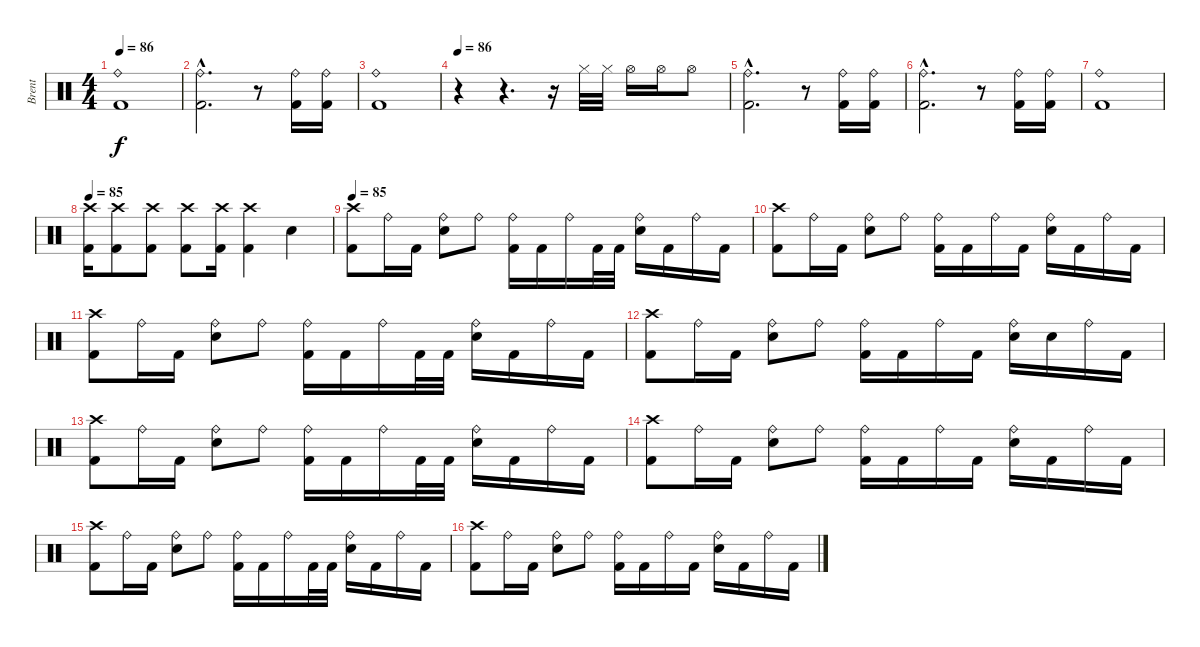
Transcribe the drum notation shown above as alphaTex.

\track ("Brent" "Brent") {instrument percussion}
\staff {score}
\articulation defaults
\ts (4 4)
\tempo 86
\clef neutral
\ks c
("Ride (bell)" "Kick (hit) 2").1{dy f} |
("Ride (bell)"{hac} "Kick (hit) 2"{hac}).2{d} r.8 ("Ride (bell)" "Kick (hit) 2").16 ("Ride (bell)" "Kick (hit) 2").16 |
("Ride (bell)" "Kick (hit) 2").1 |
\tempo 86
r.4 r.4{d} r.16 "Hi-Hat (closed)".32 "Hi-Hat (closed)".32 "Hi-Hat (open)".16 "Hi-Hat (open)".16 "Hi-Hat (open)".8 |
("Ride (bell)"{hac} "Kick (hit) 2"{hac}).2{d} r.8 ("Ride (bell)" "Kick (hit) 2").16 ("Ride (bell)" "Kick (hit) 2").16 |
("Ride (bell)"{hac} "Kick (hit) 2"{hac}).2{d} r.8 ("Ride (bell)" "Kick (hit) 2").16 ("Ride (bell)" "Kick (hit) 2").16 |
("Ride (bell)" "Kick (hit) 2").1 |
\tempo 85
("Crash high (hit)" "Kick (hit) 2").16 ("Crash high (hit)" "Kick (hit) 2").8 ("Crash high (hit)" "Kick (hit) 2").8 ("Crash high (hit)" "Kick (hit) 2").8 ("Crash high (hit)" "Kick (hit) 2").16 ("Crash high (hit)" "Kick (hit) 2").4 "Snare (hit) 2".4 |
\tempo 85
("Crash high (hit)" "Kick (hit) 2").8 "Ride (bell)".16 "Kick (hit) 2".16 ("Ride (bell)" "Snare (hit) 2").8 "Ride (bell)".8 ("Ride (bell)" "Kick (hit) 2").16 "Kick (hit) 2".16 "Ride (bell)".16 "Kick (hit) 2".32 "Kick (hit) 2".32 ("Ride (bell)" "Snare (hit) 2").16 "Kick (hit) 2".16 "Ride (bell)".16 "Kick (hit) 2".16 |
("Crash high (hit)" "Kick (hit) 2").8 "Ride (bell)".16 "Kick (hit) 2".16 ("Ride (bell)" "Snare (hit) 2").8 "Ride (bell)".8 ("Ride (bell)" "Kick (hit) 2").16 "Kick (hit) 2".16 "Ride (bell)".16 "Kick (hit) 2".16 ("Ride (bell)" "Snare (hit) 2").16 "Kick (hit) 2".16 "Ride (bell)".16 "Kick (hit) 2".16 |
("Crash high (hit)" "Kick (hit) 2").8 "Ride (bell)".16 "Kick (hit) 2".16 ("Ride (bell)" "Snare (hit) 2").8 "Ride (bell)".8 ("Ride (bell)" "Kick (hit) 2").16 "Kick (hit) 2".16 "Ride (bell)".16 "Kick (hit) 2".32 "Kick (hit) 2".32 ("Ride (bell)" "Snare (hit) 2").16 "Kick (hit) 2".16 "Ride (bell)".16 "Kick (hit) 2".16 |
("Crash high (hit)" "Kick (hit) 2").8 "Ride (bell)".16 "Kick (hit) 2".16 ("Ride (bell)" "Snare (hit) 2").8 "Ride (bell)".8 ("Ride (bell)" "Kick (hit) 2").16 "Kick (hit) 2".16 "Ride (bell)".16 "Kick (hit) 2".16 ("Ride (bell)" "Snare (hit) 2").16 "Snare (hit) 2".16 "Ride (bell)".16 "Kick (hit) 2".16 |
("Crash high (hit)" "Kick (hit) 2").8 "Ride (bell)".16 "Kick (hit) 2".16 ("Ride (bell)" "Snare (hit) 2").8 "Ride (bell)".8 ("Ride (bell)" "Kick (hit) 2").16 "Kick (hit) 2".16 "Ride (bell)".16 "Kick (hit) 2".32 "Kick (hit) 2".32 ("Ride (bell)" "Snare (hit) 2").16 "Kick (hit) 2".16 "Ride (bell)".16 "Kick (hit) 2".16 |
("Crash high (hit)" "Kick (hit) 2").8 "Ride (bell)".16 "Kick (hit) 2".16 ("Ride (bell)" "Snare (hit) 2").8 "Ride (bell)".8 ("Ride (bell)" "Kick (hit) 2").16 "Kick (hit) 2".16 "Ride (bell)".16 "Kick (hit) 2".16 ("Ride (bell)" "Snare (hit) 2").16 "Kick (hit) 2".16 "Ride (bell)".16 "Kick (hit) 2".16 |
("Crash high (hit)" "Kick (hit) 2").8 "Ride (bell)".16 "Kick (hit) 2".16 ("Ride (bell)" "Snare (hit) 2").8 "Ride (bell)".8 ("Ride (bell)" "Kick (hit) 2").16 "Kick (hit) 2".16 "Ride (bell)".16 "Kick (hit) 2".32 "Kick (hit) 2".32 ("Ride (bell)" "Snare (hit) 2").16 "Kick (hit) 2".16 "Ride (bell)".16 "Kick (hit) 2".16 |
("Crash high (hit)" "Kick (hit) 2").8 "Ride (bell)".16 "Kick (hit) 2".16 ("Ride (bell)" "Snare (hit) 2").8 "Ride (bell)".8 ("Ride (bell)" "Kick (hit) 2").16 "Kick (hit) 2".16 "Ride (bell)".16 "Kick (hit) 2".16 ("Ride (bell)" "Snare (hit) 2").16 "Kick (hit) 2".16 "Ride (bell)".16 "Kick (hit) 2".16
